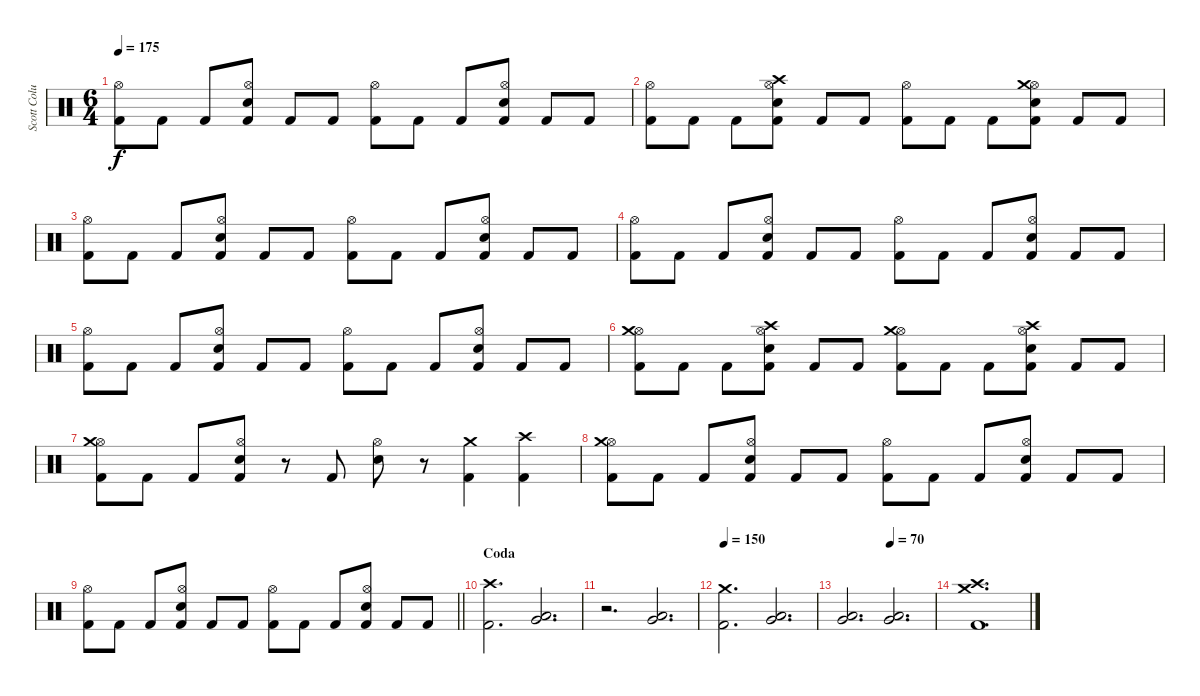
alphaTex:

\track ("Scott Columbus" "Scott Colu") {instrument percussion}
\staff {score}
\articulation defaults
\ts (6 4)
\tempo 175
\clef neutral
\ks c
("Kick (hit) 2" "Hi-Hat (open)").8{dy f} "Kick (hit) 2".8 "Kick (hit) 2".8 ("Kick (hit) 2" "Snare (hit) 2" "Hi-Hat (open)").8 "Kick (hit) 2".8 "Kick (hit) 2".8 ("Kick (hit) 2" "Hi-Hat (open)").8 "Kick (hit) 2".8 "Kick (hit) 2".8 ("Kick (hit) 2" "Snare (hit) 2" "Hi-Hat (open)").8 "Kick (hit) 2".8 "Kick (hit) 2".8 |
("Kick (hit) 2" "Hi-Hat (open)").8 "Kick (hit) 2".8 "Kick (hit) 2".8 ("Kick (hit) 2" "Snare (hit) 2" "Hi-Hat (open)" "Crash high (hit)").8 "Kick (hit) 2".8 "Kick (hit) 2".8 ("Kick (hit) 2" "Hi-Hat (open)").8 "Kick (hit) 2".8 "Kick (hit) 2".8 ("Kick (hit) 2" "Snare (hit) 2" "Hi-Hat (open)" "Crash medium (hit)").8 "Kick (hit) 2".8 "Kick (hit) 2".8 |
("Kick (hit) 2" "Hi-Hat (open)").8 "Kick (hit) 2".8 "Kick (hit) 2".8 ("Kick (hit) 2" "Snare (hit) 2" "Hi-Hat (open)").8 "Kick (hit) 2".8 "Kick (hit) 2".8 ("Kick (hit) 2" "Hi-Hat (open)").8 "Kick (hit) 2".8 "Kick (hit) 2".8 ("Kick (hit) 2" "Snare (hit) 2" "Hi-Hat (open)").8 "Kick (hit) 2".8 "Kick (hit) 2".8 |
("Kick (hit) 2" "Hi-Hat (open)").8 "Kick (hit) 2".8 "Kick (hit) 2".8 ("Kick (hit) 2" "Snare (hit) 2" "Hi-Hat (open)").8 "Kick (hit) 2".8 "Kick (hit) 2".8 ("Kick (hit) 2" "Hi-Hat (open)").8 "Kick (hit) 2".8 "Kick (hit) 2".8 ("Kick (hit) 2" "Snare (hit) 2" "Hi-Hat (open)").8 "Kick (hit) 2".8 "Kick (hit) 2".8 |
("Kick (hit) 2" "Hi-Hat (open)").8 "Kick (hit) 2".8 "Kick (hit) 2".8 ("Kick (hit) 2" "Snare (hit) 2" "Hi-Hat (open)").8 "Kick (hit) 2".8 "Kick (hit) 2".8 ("Kick (hit) 2" "Hi-Hat (open)").8 "Kick (hit) 2".8 "Kick (hit) 2".8 ("Kick (hit) 2" "Snare (hit) 2" "Hi-Hat (open)").8 "Kick (hit) 2".8 "Kick (hit) 2".8 |
("Kick (hit) 2" "Hi-Hat (open)" "Crash medium (hit)").8 "Kick (hit) 2".8 "Kick (hit) 2".8 ("Kick (hit) 2" "Snare (hit) 2" "Hi-Hat (open)" "Crash high (hit)").8 "Kick (hit) 2".8 "Kick (hit) 2".8 ("Kick (hit) 2" "Hi-Hat (open)" "Crash medium (hit)").8 "Kick (hit) 2".8 "Kick (hit) 2".8 ("Kick (hit) 2" "Snare (hit) 2" "Hi-Hat (open)" "Crash high (hit)").8 "Kick (hit) 2".8 "Kick (hit) 2".8 |
("Kick (hit) 2" "Hi-Hat (open)" "Crash medium (hit)").8 "Kick (hit) 2".8 "Kick (hit) 2".8 ("Kick (hit) 2" "Snare (hit) 2" "Hi-Hat (open)").8 r.8 "Kick (hit) 2".8 ("Snare (hit) 2" "Hi-Hat (open)").8 r.8 ("Kick (hit) 2" "Crash medium (hit)").4 ("Kick (hit) 2" "Crash high (hit)").4 |
("Kick (hit) 2" "Hi-Hat (open)" "Crash medium (hit)").8 "Kick (hit) 2".8 "Kick (hit) 2".8 ("Kick (hit) 2" "Snare (hit) 2" "Hi-Hat (open)").8 "Kick (hit) 2".8 "Kick (hit) 2".8 ("Kick (hit) 2" "Hi-Hat (open)").8 "Kick (hit) 2".8 "Kick (hit) 2".8 ("Kick (hit) 2" "Snare (hit) 2" "Hi-Hat (open)").8 "Kick (hit) 2".8 "Kick (hit) 2".8 |
\barLineRight lightlight
("Kick (hit) 2" "Hi-Hat (open)").8 "Kick (hit) 2".8 "Kick (hit) 2".8 ("Kick (hit) 2" "Snare (hit) 2" "Hi-Hat (open)").8 "Kick (hit) 2".8 "Kick (hit) 2".8 ("Kick (hit) 2" "Hi-Hat (open)").8 "Kick (hit) 2".8 "Kick (hit) 2".8 ("Kick (hit) 2" "Snare (hit) 2" "Hi-Hat (open)").8 "Kick (hit) 2".8 "Kick (hit) 2".8 |
\section ("" "Coda")
("Kick (hit) 2" "Crash high (hit)").2{d} ("Low Tom (hit)" "Very Low Tom (hit)").2{d} |
r.2{d} ("Low Tom (hit)" "Very Low Tom (hit)").2{d} |
\tempo 150
("Kick (hit) 2" "Crash medium (hit)").2{d} ("Low Tom (hit)" "Very Low Tom (hit)").2{d} |
\tempo (70 0.5)
("Low Tom (hit)" "Very Low Tom (hit)").2{d} ("Low Tom (hit)" "Very Low Tom (hit)").2{d} |
("Kick (hit) 2" "Crash high (hit)" "Crash medium (hit)").1{d}
